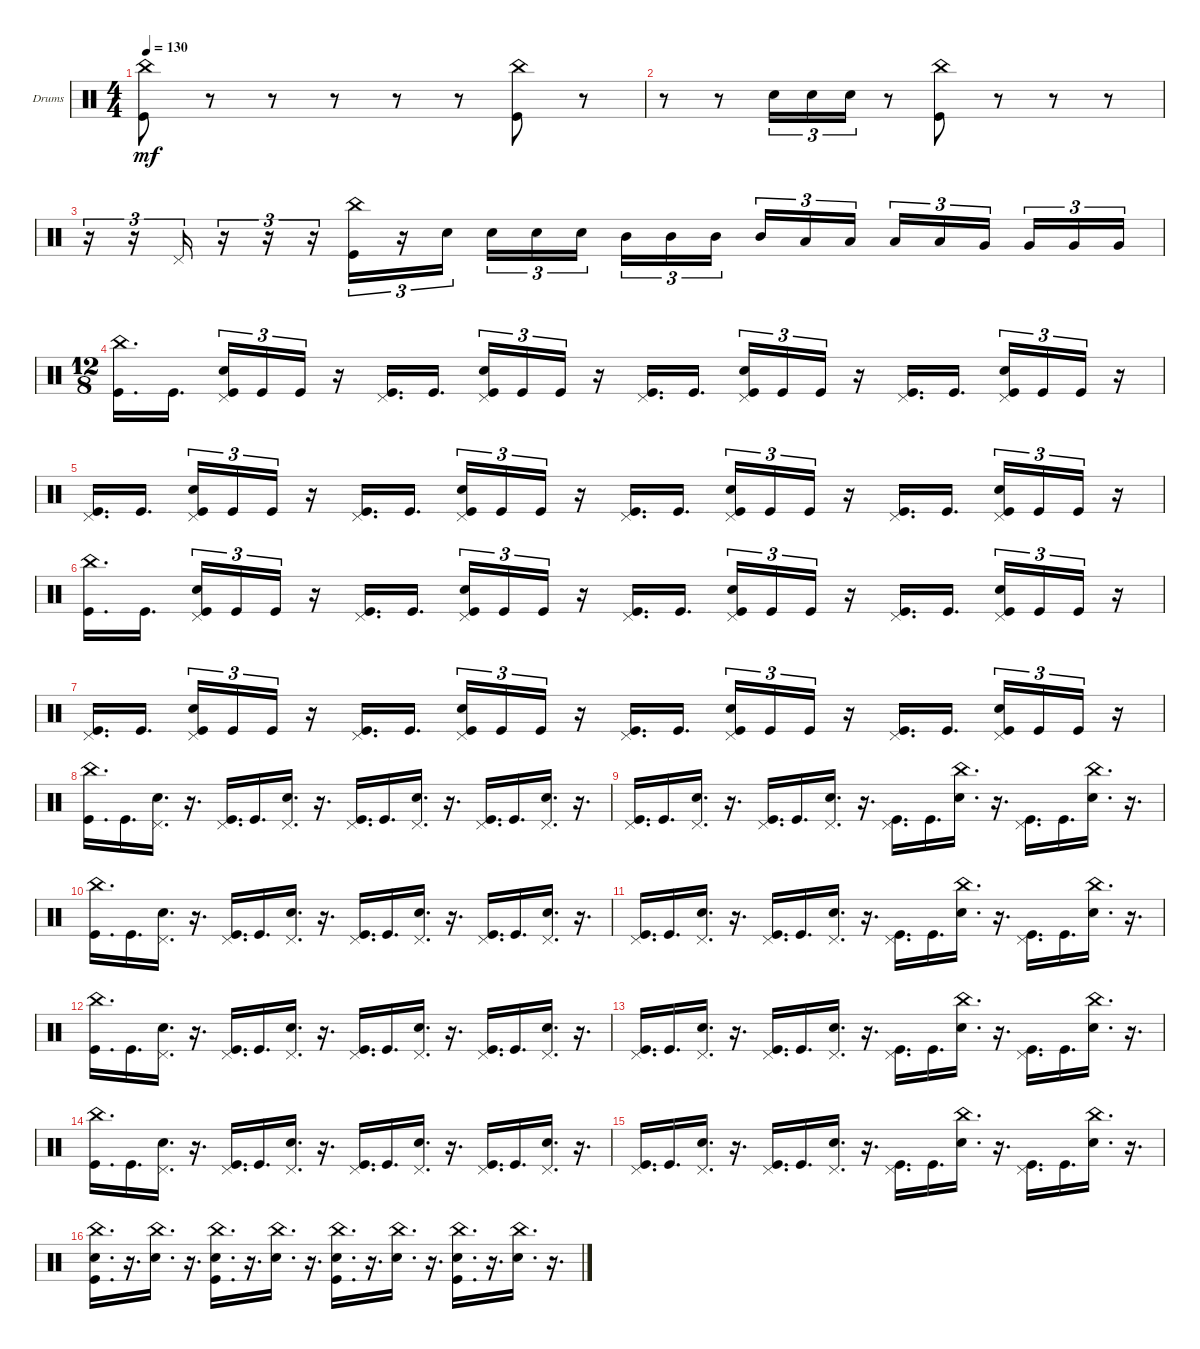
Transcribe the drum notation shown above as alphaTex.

\defaultSystemsLayout 4
\bracketExtendMode groupsimilarinstruments
\firstSystemTrackNameOrientation horizontal
\otherSystemsTrackNameOrientation horizontal
\track ("Drumkit" "Drums") {instrument percussion}
\staff {score}
\articulation defaults
\ts (4 4)
\tempo 130
\clef neutral
\scale
0.474178
\ks c
("Kick (hit)" "China (hit)").8{dy mf} r.8 r.8 r.8 r.8 r.8 ("Kick (hit)" "China (hit)").8 r.8 |
\scale
0.262911 r.8 r.8 "Snare (hit) 2".16{tu (3 2)} "Snare (hit) 2".16{tu (3 2)} "Snare (hit) 2".16{tu (3 2)} r.8 ("Kick (hit)" "China (hit)").8 r.8 r.8 r.8 |
\scale
0.262911 r.16{tu (3 2)} r.16{tu (3 2)} "Pedal Hi-Hat (hit)".16{tu (3 2)} r.16{tu (3 2)} r.16{tu (3 2)} r.16{tu (3 2)} ("Kick (hit)" "China (hit)").16{tu (3 2)} r.16{tu (3 2)} "Snare (hit) 2".16{tu (3 2)} "Snare (hit) 2".16{tu (3 2)} "Snare (hit) 2".16{tu (3 2)} "Snare (hit) 2".16{tu (3 2)} "Mid Tom (hit)".16{tu (3 2)} "Mid Tom (hit)".16{tu (3 2)} "Mid Tom (hit)".16{tu (3 2)} "Mid Tom (hit)".16{tu (3 2)} "Low Tom (hit)".16{tu (3 2)} "Low Tom (hit)".16{tu (3 2)} "Low Tom (hit)".16{tu (3 2)} "Low Tom (hit)".16{tu (3 2)} "Very Low Tom (hit)".16{tu (3 2)} "Very Low Tom (hit)".16{tu (3 2)} "Very Low Tom (hit)".16{tu (3 2)} "Very Low Tom (hit)".16{tu (3 2)} |
\ts (12 8)
\scale
0.333333 ("Kick (hit)" "China (hit)").16{d} "Kick (hit)".16{d} ("Kick (hit)" "Pedal Hi-Hat (hit)" "Snare (hit) 2").16{tu (3 2)} "Kick (hit)".16{tu (3 2)} "Kick (hit)".16{tu (3 2)} r.16 ("Kick (hit)" "Pedal Hi-Hat (hit)").16{d} "Kick (hit)".16{d} ("Kick (hit)" "Pedal Hi-Hat (hit)" "Snare (hit) 2").16{tu (3 2)} "Kick (hit)".16{tu (3 2)} "Kick (hit)".16{tu (3 2)} r.16 ("Kick (hit)" "Pedal Hi-Hat (hit)").16{d} "Kick (hit)".16{d} ("Kick (hit)" "Pedal Hi-Hat (hit)" "Snare (hit) 2").16{tu (3 2)} "Kick (hit)".16{tu (3 2)} "Kick (hit)".16{tu (3 2)} r.16 ("Kick (hit)" "Pedal Hi-Hat (hit)").16{d} "Kick (hit)".16{d} ("Kick (hit)" "Pedal Hi-Hat (hit)" "Snare (hit) 2").16{tu (3 2)} "Kick (hit)".16{tu (3 2)} "Kick (hit)".16{tu (3 2)} r.16 |
\scale
0.333333 ("Kick (hit)" "Pedal Hi-Hat (hit)").16{d} "Kick (hit)".16{d} ("Kick (hit)" "Pedal Hi-Hat (hit)" "Snare (hit) 2").16{tu (3 2)} "Kick (hit)".16{tu (3 2)} "Kick (hit)".16{tu (3 2)} r.16 ("Kick (hit)" "Pedal Hi-Hat (hit)").16{d} "Kick (hit)".16{d} ("Kick (hit)" "Pedal Hi-Hat (hit)" "Snare (hit) 2").16{tu (3 2)} "Kick (hit)".16{tu (3 2)} "Kick (hit)".16{tu (3 2)} r.16 ("Kick (hit)" "Pedal Hi-Hat (hit)").16{d} "Kick (hit)".16{d} ("Kick (hit)" "Pedal Hi-Hat (hit)" "Snare (hit) 2").16{tu (3 2)} "Kick (hit)".16{tu (3 2)} "Kick (hit)".16{tu (3 2)} r.16 ("Kick (hit)" "Pedal Hi-Hat (hit)").16{d} "Kick (hit)".16{d} ("Kick (hit)" "Pedal Hi-Hat (hit)" "Snare (hit) 2").16{tu (3 2)} "Kick (hit)".16{tu (3 2)} "Kick (hit)".16{tu (3 2)} r.16 |
\scale
0.333333 ("Kick (hit)" "China (hit)").16{d} "Kick (hit)".16{d} ("Kick (hit)" "Pedal Hi-Hat (hit)" "Snare (hit) 2").16{tu (3 2)} "Kick (hit)".16{tu (3 2)} "Kick (hit)".16{tu (3 2)} r.16 ("Kick (hit)" "Pedal Hi-Hat (hit)").16{d} "Kick (hit)".16{d} ("Kick (hit)" "Pedal Hi-Hat (hit)" "Snare (hit) 2").16{tu (3 2)} "Kick (hit)".16{tu (3 2)} "Kick (hit)".16{tu (3 2)} r.16 ("Kick (hit)" "Pedal Hi-Hat (hit)").16{d} "Kick (hit)".16{d} ("Kick (hit)" "Pedal Hi-Hat (hit)" "Snare (hit) 2").16{tu (3 2)} "Kick (hit)".16{tu (3 2)} "Kick (hit)".16{tu (3 2)} r.16 ("Kick (hit)" "Pedal Hi-Hat (hit)").16{d} "Kick (hit)".16{d} ("Kick (hit)" "Pedal Hi-Hat (hit)" "Snare (hit) 2").16{tu (3 2)} "Kick (hit)".16{tu (3 2)} "Kick (hit)".16{tu (3 2)} r.16 |
("Kick (hit)" "Pedal Hi-Hat (hit)").16{d} "Kick (hit)".16{d} ("Kick (hit)" "Pedal Hi-Hat (hit)" "Snare (hit) 2").16{tu (3 2)} "Kick (hit)".16{tu (3 2)} "Kick (hit)".16{tu (3 2)} r.16 ("Kick (hit)" "Pedal Hi-Hat (hit)").16{d} "Kick (hit)".16{d} ("Kick (hit)" "Pedal Hi-Hat (hit)" "Snare (hit) 2").16{tu (3 2)} "Kick (hit)".16{tu (3 2)} "Kick (hit)".16{tu (3 2)} r.16 ("Kick (hit)" "Pedal Hi-Hat (hit)").16{d} "Kick (hit)".16{d} ("Kick (hit)" "Pedal Hi-Hat (hit)" "Snare (hit) 2").16{tu (3 2)} "Kick (hit)".16{tu (3 2)} "Kick (hit)".16{tu (3 2)} r.16 ("Kick (hit)" "Pedal Hi-Hat (hit)").16{d} "Kick (hit)".16{d} ("Kick (hit)" "Pedal Hi-Hat (hit)" "Snare (hit) 2").16{tu (3 2)} "Kick (hit)".16{tu (3 2)} "Kick (hit)".16{tu (3 2)} r.16 |
("Kick (hit)" "China (hit)").16{d} "Kick (hit)".16{d} ("Snare (hit) 2" "Pedal Hi-Hat (hit)").16{d} r.16{d} ("Kick (hit)" "Pedal Hi-Hat (hit)").16{d} "Kick (hit)".16{d} ("Snare (hit) 2" "Pedal Hi-Hat (hit)").16{d} r.16{d} ("Kick (hit)" "Pedal Hi-Hat (hit)").16{d} "Kick (hit)".16{d} ("Snare (hit) 2" "Pedal Hi-Hat (hit)").16{d} r.16{d} ("Kick (hit)" "Pedal Hi-Hat (hit)").16{d} "Kick (hit)".16{d} ("Snare (hit) 2" "Pedal Hi-Hat (hit)").16{d} r.16{d} |
("Kick (hit)" "Pedal Hi-Hat (hit)").16{d} "Kick (hit)".16{d} ("Snare (hit) 2" "Pedal Hi-Hat (hit)").16{d} r.16{d} ("Kick (hit)" "Pedal Hi-Hat (hit)").16{d} "Kick (hit)".16{d} ("Snare (hit) 2" "Pedal Hi-Hat (hit)").16{d} r.16{d} ("Kick (hit)" "Pedal Hi-Hat (hit)").16{d} "Kick (hit)".16{d} ("Snare (hit) 2" "China (hit)").16{d} r.16{d} ("Kick (hit)" "Pedal Hi-Hat (hit)").16{d} "Kick (hit)".16{d} ("Snare (hit) 2" "China (hit)").16{d} r.16{d} |
("Kick (hit)" "China (hit)").16{d} "Kick (hit)".16{d} ("Snare (hit) 2" "Pedal Hi-Hat (hit)").16{d} r.16{d} ("Kick (hit)" "Pedal Hi-Hat (hit)").16{d} "Kick (hit)".16{d} ("Snare (hit) 2" "Pedal Hi-Hat (hit)").16{d} r.16{d} ("Kick (hit)" "Pedal Hi-Hat (hit)").16{d} "Kick (hit)".16{d} ("Snare (hit) 2" "Pedal Hi-Hat (hit)").16{d} r.16{d} ("Kick (hit)" "Pedal Hi-Hat (hit)").16{d} "Kick (hit)".16{d} ("Snare (hit) 2" "Pedal Hi-Hat (hit)").16{d} r.16{d} |
("Kick (hit)" "Pedal Hi-Hat (hit)").16{d} "Kick (hit)".16{d} ("Snare (hit) 2" "Pedal Hi-Hat (hit)").16{d} r.16{d} ("Kick (hit)" "Pedal Hi-Hat (hit)").16{d} "Kick (hit)".16{d} ("Snare (hit) 2" "Pedal Hi-Hat (hit)").16{d} r.16{d} ("Kick (hit)" "Pedal Hi-Hat (hit)").16{d} "Kick (hit)".16{d} ("Snare (hit) 2" "China (hit)").16{d} r.16{d} ("Kick (hit)" "Pedal Hi-Hat (hit)").16{d} "Kick (hit)".16{d} ("Snare (hit) 2" "China (hit)").16{d} r.16{d} |
("Kick (hit)" "China (hit)").16{d} "Kick (hit)".16{d} ("Snare (hit) 2" "Pedal Hi-Hat (hit)").16{d} r.16{d} ("Kick (hit)" "Pedal Hi-Hat (hit)").16{d} "Kick (hit)".16{d} ("Snare (hit) 2" "Pedal Hi-Hat (hit)").16{d} r.16{d} ("Kick (hit)" "Pedal Hi-Hat (hit)").16{d} "Kick (hit)".16{d} ("Snare (hit) 2" "Pedal Hi-Hat (hit)").16{d} r.16{d} ("Kick (hit)" "Pedal Hi-Hat (hit)").16{d} "Kick (hit)".16{d} ("Snare (hit) 2" "Pedal Hi-Hat (hit)").16{d} r.16{d} |
("Kick (hit)" "Pedal Hi-Hat (hit)").16{d} "Kick (hit)".16{d} ("Snare (hit) 2" "Pedal Hi-Hat (hit)").16{d} r.16{d} ("Kick (hit)" "Pedal Hi-Hat (hit)").16{d} "Kick (hit)".16{d} ("Snare (hit) 2" "Pedal Hi-Hat (hit)").16{d} r.16{d} ("Kick (hit)" "Pedal Hi-Hat (hit)").16{d} "Kick (hit)".16{d} ("Snare (hit) 2" "China (hit)").16{d} r.16{d} ("Kick (hit)" "Pedal Hi-Hat (hit)").16{d} "Kick (hit)".16{d} ("Snare (hit) 2" "China (hit)").16{d} r.16{d} |
("Kick (hit)" "China (hit)").16{d} "Kick (hit)".16{d} ("Snare (hit) 2" "Pedal Hi-Hat (hit)").16{d} r.16{d} ("Kick (hit)" "Pedal Hi-Hat (hit)").16{d} "Kick (hit)".16{d} ("Snare (hit) 2" "Pedal Hi-Hat (hit)").16{d} r.16{d} ("Kick (hit)" "Pedal Hi-Hat (hit)").16{d} "Kick (hit)".16{d} ("Snare (hit) 2" "Pedal Hi-Hat (hit)").16{d} r.16{d} ("Kick (hit)" "Pedal Hi-Hat (hit)").16{d} "Kick (hit)".16{d} ("Snare (hit) 2" "Pedal Hi-Hat (hit)").16{d} r.16{d} |
("Kick (hit)" "Pedal Hi-Hat (hit)").16{d} "Kick (hit)".16{d} ("Snare (hit) 2" "Pedal Hi-Hat (hit)").16{d} r.16{d} ("Kick (hit)" "Pedal Hi-Hat (hit)").16{d} "Kick (hit)".16{d} ("Snare (hit) 2" "Pedal Hi-Hat (hit)").16{d} r.16{d} ("Kick (hit)" "Pedal Hi-Hat (hit)").16{d} "Kick (hit)".16{d} ("Snare (hit) 2" "China (hit)").16{d} r.16{d} ("Kick (hit)" "Pedal Hi-Hat (hit)").16{d} "Kick (hit)".16{d} ("Snare (hit) 2" "China (hit)").16{d} r.16{d} |
("Kick (hit)" "Snare (hit) 2" "China (hit)").16{d} r.16{d} ("Snare (hit) 2" "China (hit)").16{d} r.16{d} ("Kick (hit)" "Snare (hit) 2" "China (hit)").16{d} r.16{d} ("Snare (hit) 2" "China (hit)").16{d} r.16{d} ("Kick (hit)" "Snare (hit) 2" "China (hit)").16{d} r.16{d} ("Snare (hit) 2" "China (hit)").16{d} r.16{d} ("Kick (hit)" "Snare (hit) 2" "China (hit)").16{d} r.16{d} ("Snare (hit) 2" "China (hit)").16{d} r.16{d}
